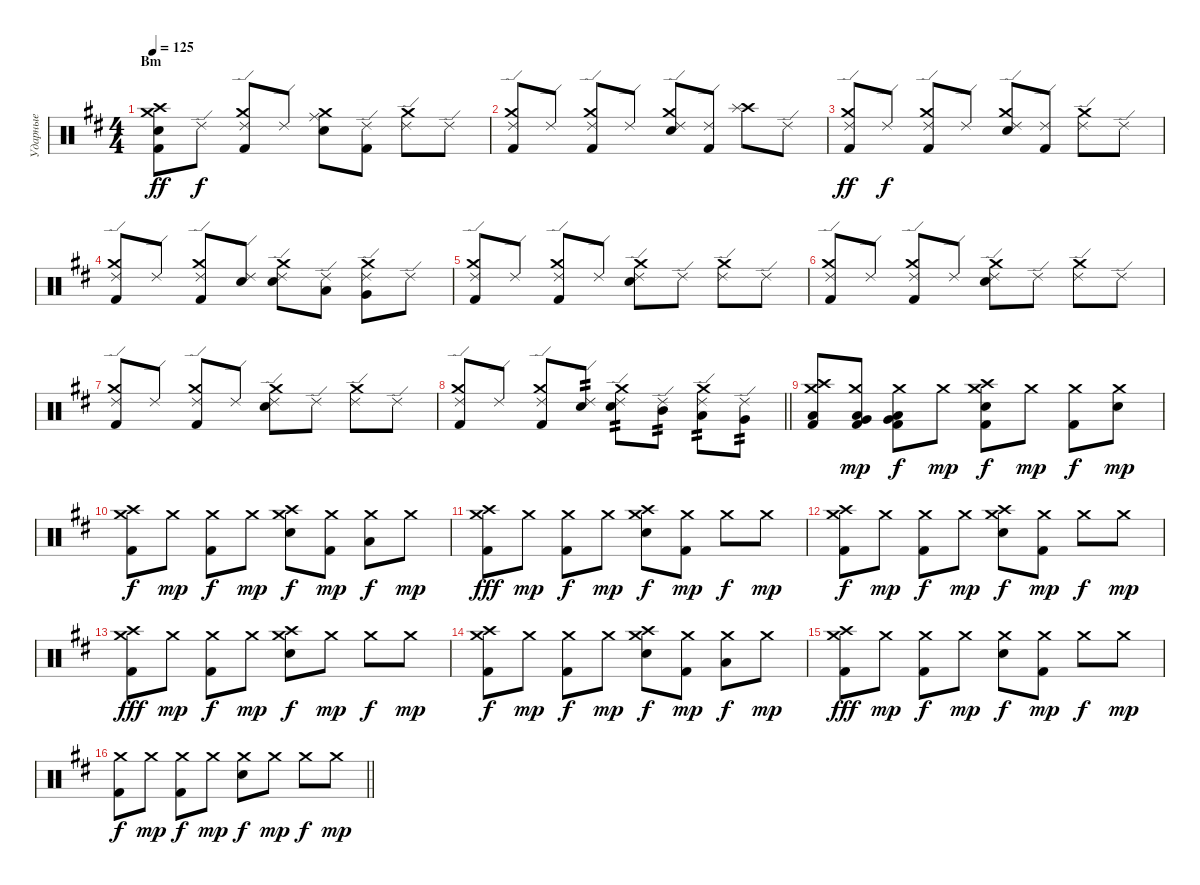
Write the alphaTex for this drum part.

\track ("Ударные" "Ударные") {instrument percussion}
\staff {score}
\articulation defaults
\ts (4 4)
\section ("" "Bm")
\tempo 125
\clef neutral
\ks bminor
("Kick (hit) 2" "Electric Snare (hit)" "Crash high (hit)" "Crash medium (hit)").8{dy ff} "Ride (edge) 2".8{dy f} ("Kick (hit) 2" "Ride (edge) 2" "Crash medium (hit)").8 "Ride (edge) 2".8 ("Electric Snare (hit)" "Ride (middle)" "Crash medium (hit)").8 ("Kick (hit) 2" "Ride (edge) 2").8 ("Ride (edge) 2" "Crash medium (hit)").8 "Ride (edge) 2".8 |
("Kick (hit) 2" "Ride (edge) 2" "Crash medium (hit)").8 "Ride (edge) 2".8 ("Kick (hit) 2" "Ride (edge) 2" "Crash medium (hit)").8 "Ride (edge) 2".8 ("Electric Snare (hit)" "Ride (edge) 2" "Crash medium (hit)").8 ("Kick (hit) 2" "Ride (edge) 2").8 ("Crash high (hit)" "Splash (hit)").8 "Ride (edge) 2".8 |
("Kick (hit) 2" "Ride (edge) 2" "Crash medium (hit)").8{dy ff} "Ride (edge) 2".8{dy f} ("Kick (hit) 2" "Ride (edge) 2" "Crash medium (hit)").8 "Ride (edge) 2".8 ("Electric Snare (hit)" "Ride (edge) 2" "Crash medium (hit)").8 ("Kick (hit) 2" "Ride (edge) 2").8 ("Ride (edge) 2" "Crash medium (hit)").8 "Ride (edge) 2".8 |
("Kick (hit) 2" "Ride (edge) 2" "Crash medium (hit)").8 "Ride (edge) 2".8 ("Kick (hit) 2" "Ride (edge) 2" "Crash medium (hit)").8 ("Electric Snare (hit)" "Ride (edge) 2").8 ("Electric Snare (hit)" "Ride (edge) 2" "Crash medium (hit)").8 ("Low Tom (hit)" "Ride (edge) 2").8 ("Very Low Tom (hit)" "Ride (edge) 2" "Crash medium (hit)").8 "Ride (edge) 2".8 |
("Kick (hit) 2" "Ride (edge) 2" "Crash medium (hit)").8 "Ride (edge) 2".8 ("Kick (hit) 2" "Ride (edge) 2" "Crash medium (hit)").8 "Ride (edge) 2".8 ("Electric Snare (hit)" "Ride (edge) 2" "Crash medium (hit)").8 "Ride (edge) 2".8 ("Ride (edge) 2" "Crash medium (hit)").8 "Ride (edge) 2".8 |
("Kick (hit) 2" "Ride (edge) 2" "Crash medium (hit)").8 "Ride (edge) 2".8 ("Kick (hit) 2" "Ride (edge) 2" "Crash medium (hit)").8 "Ride (edge) 2".8 ("Electric Snare (hit)" "Ride (edge) 2" "Crash medium (hit)").8 "Ride (edge) 2".8 ("Ride (edge) 2" "Crash medium (hit)").8 "Ride (edge) 2".8 |
("Kick (hit) 2" "Ride (edge) 2" "Crash medium (hit)").8 "Ride (edge) 2".8 ("Kick (hit) 2" "Ride (edge) 2" "Crash medium (hit)").8 "Ride (edge) 2".8 ("Electric Snare (hit)" "Ride (edge) 2" "Crash medium (hit)").8 "Ride (edge) 2".8 ("Ride (edge) 2" "Crash medium (hit)").8 "Ride (edge) 2".8 |
\barLineRight lightlight
("Kick (hit) 2" "Ride (edge) 2" "Crash medium (hit)").8 "Ride (edge) 2".8 ("Kick (hit) 2" "Ride (edge) 2" "Crash medium (hit)").8 ("Electric Snare (hit)" "Ride (edge) 2").8{tp 2} ("Electric Snare (hit)" "Ride (edge) 2" "Crash medium (hit)").8{tp 2} ("Mid Tom (hit)" "Ride (edge) 2").8{tp 2} ("Low Tom (hit)" "Ride (edge) 2" "Crash medium (hit)").8{tp 2} ("Very Low Tom (hit)" "Ride (edge) 2").8{tp 2} |
\section ("" "")
("Kick (hit) 2" "Crash high (hit)" "Crash medium (hit)" "Low Tom (hit)").8 ("Kick (hit) 2" "Low Tom (hit)" "Crash medium (hit)" "Very Low Tom (hit)").8{dy mp} ("Kick (hit) 2" "Very Low Tom (hit)" "Crash medium (hit)" "Low Floor Tom (hit)").8{dy f} "Crash medium (hit)".8{dy mp} ("Electric Snare (hit)" "Crash high (hit)" "Crash medium (hit)" "Kick (hit) 2").8{dy f} "Crash medium (hit)".8{dy mp} ("Kick (hit) 2" "Crash medium (hit)").8{dy f} ("Electric Snare (hit)" "Crash medium (hit)").8{dy mp} |
("Kick (hit) 2" "Crash high (hit)" "Crash medium (hit)").8{dy f} "Crash medium (hit)".8{dy mp} ("Kick (hit) 2" "Crash medium (hit)").8{dy f} "Crash medium (hit)".8{dy mp} ("Electric Snare (hit)" "Crash high (hit)" "Crash medium (hit)").8{dy f} ("Kick (hit) 2" "Crash medium (hit)").8{dy mp} ("Low Tom (hit)" "Crash medium (hit)").8{dy f} "Crash medium (hit)".8{dy mp} |
("Kick (hit) 2" "Crash high (hit)" "Crash medium (hit)").8{dy fff} "Crash medium (hit)".8{dy mp} ("Kick (hit) 2" "Crash medium (hit)").8{dy f} "Crash medium (hit)".8{dy mp} ("Electric Snare (hit)" "Crash high (hit)" "Crash medium (hit)").8{dy f} ("Kick (hit) 2" "Crash medium (hit)").8{dy mp} "Crash medium (hit)".8{dy f} "Crash medium (hit)".8{dy mp} |
("Kick (hit) 2" "Crash high (hit)" "Crash medium (hit)").8{dy f} "Crash medium (hit)".8{dy mp} ("Kick (hit) 2" "Crash medium (hit)").8{dy f} "Crash medium (hit)".8{dy mp} ("Electric Snare (hit)" "Crash high (hit)" "Crash medium (hit)").8{dy f} ("Kick (hit) 2" "Crash medium (hit)").8{dy mp} "Crash medium (hit)".8{dy f} "Crash medium (hit)".8{dy mp} |
("Kick (hit) 2" "Crash high (hit)" "Crash medium (hit)").8{dy fff} "Crash medium (hit)".8{dy mp} ("Kick (hit) 2" "Crash medium (hit)").8{dy f} "Crash medium (hit)".8{dy mp} ("Electric Snare (hit)" "Crash high (hit)" "Crash medium (hit)").8{dy f} "Crash medium (hit)".8{dy mp} "Crash medium (hit)".8{dy f} "Crash medium (hit)".8{dy mp} |
("Kick (hit) 2" "Crash high (hit)" "Crash medium (hit)").8{dy f} "Crash medium (hit)".8{dy mp} ("Kick (hit) 2" "Crash medium (hit)").8{dy f} "Crash medium (hit)".8{dy mp} ("Electric Snare (hit)" "Crash high (hit)" "Crash medium (hit)").8{dy f} ("Kick (hit) 2" "Crash medium (hit)").8{dy mp} ("Low Tom (hit)" "Crash medium (hit)").8{dy f} "Crash medium (hit)".8{dy mp} |
("Kick (hit) 2" "Crash high (hit)" "Crash medium (hit)").8{dy fff} "Crash medium (hit)".8{dy mp} ("Kick (hit) 2" "Crash medium (hit)").8{dy f} "Crash medium (hit)".8{dy mp} ("Electric Snare (hit)" "Crash medium (hit)").8{dy f} ("Kick (hit) 2" "Crash medium (hit)").8{dy mp} "Crash medium (hit)".8{dy f} "Crash medium (hit)".8{dy mp} |
\barLineRight lightlight
("Kick (hit) 2" "Crash medium (hit)").8{dy f} "Crash medium (hit)".8{dy mp} ("Kick (hit) 2" "Crash medium (hit)").8{dy f} "Crash medium (hit)".8{dy mp} ("Electric Snare (hit)" "Crash medium (hit)").8{dy f} "Crash medium (hit)".8{dy mp} "Crash medium (hit)".8{dy f} "Crash medium (hit)".8{dy mp}
